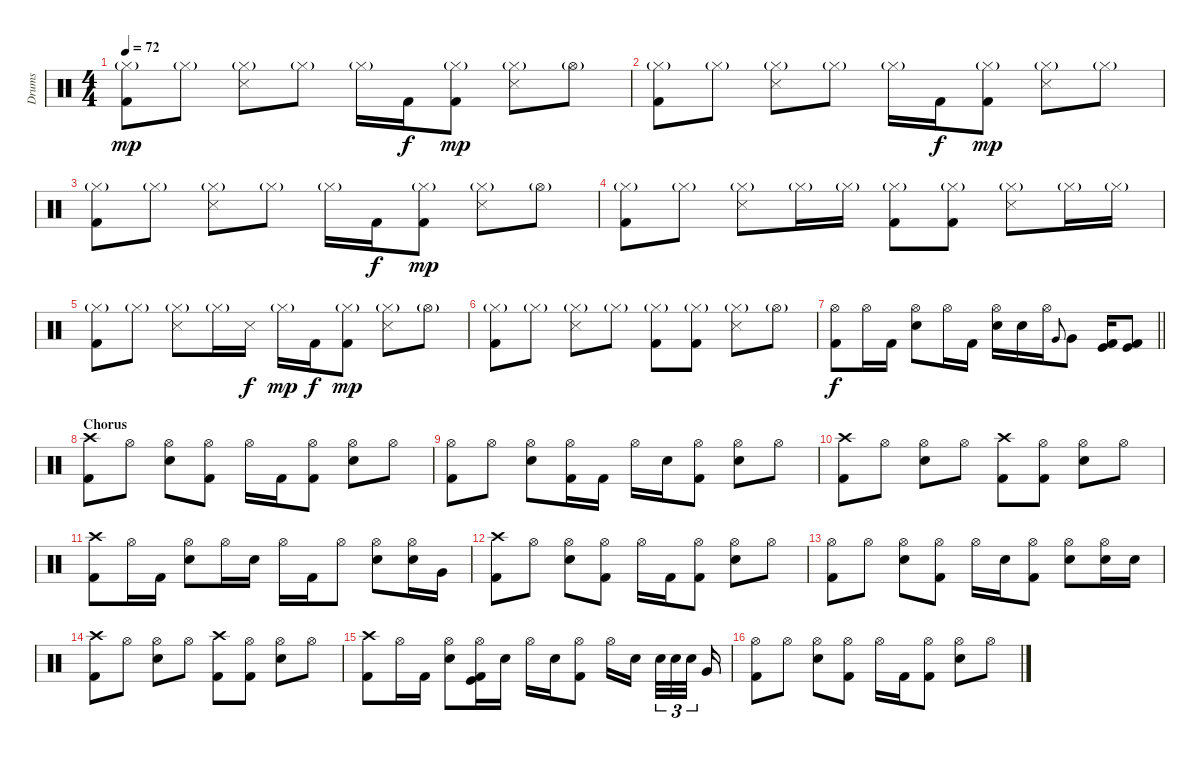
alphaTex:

\track ("Drums" "Drums") {instrument percussion}
\staff {score}
\articulation defaults
\ts (4 4)
\tempo 72
\clef neutral
\ks c
("Hi-Hat (closed)"{g} "Kick (hit) 2").8{dy mp} "Hi-Hat (closed)"{g}.8 ("Hi-Hat (closed)"{g} "Snare (side stick) 3").8 "Hi-Hat (closed)"{g}.8 "Hi-Hat (closed)"{g}.16 "Kick (hit) 2".16{dy f} ("Hi-Hat (closed)"{g} "Kick (hit) 2").8{dy mp} ("Hi-Hat (closed)"{g} "Snare (side stick) 3").8 "Hi-Hat (open)"{g}.8 |
("Hi-Hat (closed)"{g} "Kick (hit) 2").8 "Hi-Hat (closed)"{g}.8 ("Hi-Hat (closed)"{g} "Snare (side stick) 3").8 "Hi-Hat (closed)"{g}.8 "Hi-Hat (closed)"{g}.16 "Kick (hit) 2".16{dy f} ("Hi-Hat (closed)"{g} "Kick (hit) 2").8{dy mp} ("Hi-Hat (closed)"{g} "Snare (side stick) 3").8 "Hi-Hat (closed)"{g}.8 |
("Hi-Hat (closed)"{g} "Kick (hit) 2").8 "Hi-Hat (closed)"{g}.8 ("Hi-Hat (closed)"{g} "Snare (side stick) 3").8 "Hi-Hat (closed)"{g}.8 "Hi-Hat (closed)"{g}.16 "Kick (hit) 2".16{dy f} ("Hi-Hat (closed)"{g} "Kick (hit) 2").8{dy mp} ("Hi-Hat (closed)"{g} "Snare (side stick) 3").8 "Hi-Hat (open)"{g}.8 |
("Hi-Hat (closed)"{g} "Kick (hit) 2").8 "Hi-Hat (closed)"{g}.8 ("Hi-Hat (closed)"{g} "Snare (side stick) 3").8 "Hi-Hat (closed)"{g}.16 "Hi-Hat (closed)"{g}.16 ("Hi-Hat (closed)"{g} "Kick (hit) 2").8 ("Hi-Hat (closed)"{g} "Kick (hit) 2").8 ("Hi-Hat (closed)"{g} "Snare (side stick) 3").8 "Hi-Hat (closed)"{g}.16 "Hi-Hat (closed)"{g}.16 |
("Hi-Hat (closed)"{g} "Kick (hit) 2").8 "Hi-Hat (closed)"{g}.8 ("Hi-Hat (closed)"{g} "Snare (side stick) 3").8 "Hi-Hat (closed)"{g}.16 "Snare (side stick) 3".16{dy f} "Hi-Hat (closed)"{g}.16{dy mp} "Kick (hit) 2".16{dy f} ("Hi-Hat (closed)"{g} "Kick (hit) 2").8{dy mp} ("Hi-Hat (closed)"{g} "Snare (side stick) 3").8 "Hi-Hat (open)"{g}.8 |
("Hi-Hat (closed)"{g} "Kick (hit) 2").8 "Hi-Hat (closed)"{g}.8 ("Hi-Hat (closed)"{g} "Snare (side stick) 3").8 "Hi-Hat (closed)"{g}.8 ("Hi-Hat (closed)"{g} "Kick (hit) 2").8 ("Hi-Hat (closed)"{g} "Kick (hit) 2").8 ("Hi-Hat (closed)"{g} "Snare (side stick) 3").8 "Hi-Hat (open)"{g}.8 |
\barLineRight lightlight
("Hi-Hat (open)" "Kick (hit) 2").8{dy f} "Hi-Hat (open)".16 "Kick (hit) 2".16 ("Hi-Hat (open)" "Snare (hit) 2").8 "Hi-Hat (open)".16 "Kick (hit) 2".16 ("Hi-Hat (open)" "Snare (hit) 2").16 "Snare (hit) 2".16 "Hi-Hat (open)".16 "Very Low Tom (hit)".8{gr onbeat} "Very Low Tom (hit)".8 ("Kick (hit)" "Kick (hit) 2").16 ("Kick (hit)" "Kick (hit) 2").8 |
\section ("" "Chorus")
("Crash high (hit)" "Kick (hit) 2").8 "Hi-Hat (open)".8 ("Hi-Hat (open)" "Snare (hit) 2").8 ("Hi-Hat (open)" "Kick (hit) 2").8 "Hi-Hat (open)".16 "Kick (hit) 2".16 ("Hi-Hat (open)" "Kick (hit) 2").8 ("Hi-Hat (open)" "Snare (hit) 2").8 "Hi-Hat (open)".8 |
("Hi-Hat (open)" "Kick (hit) 2").8 "Hi-Hat (open)".8 ("Hi-Hat (open)" "Snare (hit) 2").8 ("Hi-Hat (open)" "Kick (hit) 2").16 "Kick (hit) 2".16 "Hi-Hat (open)".16 "Snare (hit) 2".16 ("Hi-Hat (open)" "Kick (hit) 2").8 ("Hi-Hat (open)" "Snare (hit) 2").8 "Hi-Hat (open)".8 |
("Crash high (hit)" "Kick (hit) 2").8 "Hi-Hat (open)".8 ("Hi-Hat (open)" "Snare (hit) 2").8 "Hi-Hat (open)".8 ("Crash high (hit)" "Kick (hit) 2").8 ("Hi-Hat (open)" "Kick (hit) 2").8 ("Hi-Hat (open)" "Snare (hit) 2").8 "Hi-Hat (open)".8 |
("Crash high (hit)" "Kick (hit) 2").8 "Hi-Hat (open)".16 "Kick (hit) 2".16 ("Hi-Hat (open)" "Snare (hit) 2").8 "Hi-Hat (open)".16 "Snare (hit) 2".16 "Hi-Hat (open)".16 "Kick (hit) 2".16 "Hi-Hat (open)".8 ("Snare (hit) 2" "Hi-Hat (open)").8 ("Snare (hit) 2" "Hi-Hat (open)").16 "Very Low Tom (hit)".16 |
("Crash high (hit)" "Kick (hit) 2").8 "Hi-Hat (open)".8 ("Hi-Hat (open)" "Snare (hit) 2").8 ("Hi-Hat (open)" "Kick (hit) 2").8 "Hi-Hat (open)".16 "Kick (hit) 2".16 ("Hi-Hat (open)" "Kick (hit) 2").8 ("Hi-Hat (open)" "Snare (hit) 2").8 "Hi-Hat (open)".8 |
("Hi-Hat (open)" "Kick (hit) 2").8 "Hi-Hat (open)".8 ("Hi-Hat (open)" "Snare (hit) 2").8 ("Hi-Hat (open)" "Kick (hit) 2").8 "Hi-Hat (open)".16 "Snare (hit) 2".16 ("Hi-Hat (open)" "Kick (hit) 2").8 ("Hi-Hat (open)" "Snare (hit) 2").8 ("Hi-Hat (open)" "Snare (hit) 2").16 "Snare (hit) 2".16 |
("Crash high (hit)" "Kick (hit) 2").8 "Hi-Hat (open)".8 ("Hi-Hat (open)" "Snare (hit) 2").8 "Hi-Hat (open)".8 ("Crash high (hit)" "Kick (hit) 2").8 ("Hi-Hat (open)" "Kick (hit) 2").8 ("Hi-Hat (open)" "Snare (hit) 2").8 "Hi-Hat (open)".8 |
("Crash high (hit)" "Kick (hit) 2").8 "Hi-Hat (open)".16 "Kick (hit) 2".16 ("Hi-Hat (open)" "Snare (hit) 2").8 ("Hi-Hat (open)" "Kick (hit)" "Kick (hit) 2").16 "Snare (hit) 2".16 "Hi-Hat (open)".16 "Snare (hit) 2".16 ("Hi-Hat (open)" "Kick (hit) 2").8 "Hi-Hat (open)".16 "Snare (hit) 2".16{beam splitsecondary} "Snare (hit) 2".32{tu (3 2)} "Snare (hit) 2".32{tu (3 2)} "Snare (hit) 2".32{tu (3 2) beam splitsecondary} "Very Low Tom (hit)".16 |
("Hi-Hat (open)" "Kick (hit) 2").8 "Hi-Hat (open)".8 ("Hi-Hat (open)" "Snare (hit) 2").8 ("Hi-Hat (open)" "Kick (hit) 2").8 "Hi-Hat (open)".16 "Kick (hit) 2".16 ("Hi-Hat (open)" "Kick (hit) 2").8 ("Hi-Hat (open)" "Snare (hit) 2").8 "Hi-Hat (open)".8
